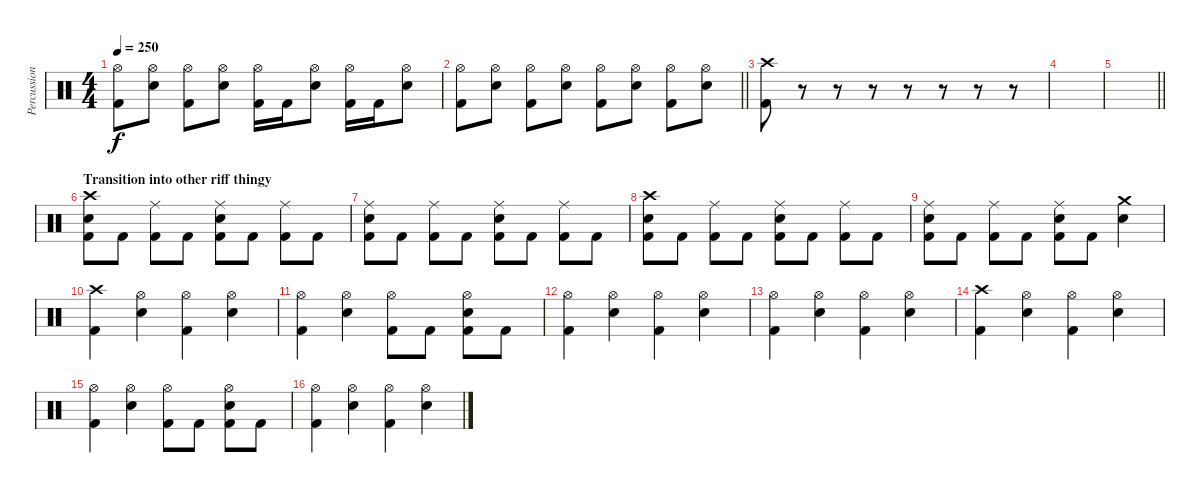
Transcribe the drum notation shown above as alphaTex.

\track ("Percussion" "Percussion") {instrument percussion}
\staff {score}
\articulation defaults
\ts (4 4)
\tempo 250
\clef neutral
\ks c
("Hi-Hat (open)" "Kick (hit) 2").8{dy f} ("Hi-Hat (open)" "Electric Snare (hit)").8 ("Hi-Hat (open)" "Kick (hit) 2").8 ("Hi-Hat (open)" "Electric Snare (hit)").8 ("Hi-Hat (open)" "Kick (hit) 2").16 "Kick (hit) 2".16 ("Hi-Hat (open)" "Electric Snare (hit)").8 ("Hi-Hat (open)" "Kick (hit) 2").16 "Kick (hit) 2".16 ("Hi-Hat (open)" "Electric Snare (hit)").8 |
\barLineRight lightlight
("Hi-Hat (open)" "Kick (hit) 2").8 ("Hi-Hat (open)" "Electric Snare (hit)").8 ("Hi-Hat (open)" "Kick (hit) 2").8 ("Hi-Hat (open)" "Electric Snare (hit)").8 ("Hi-Hat (open)" "Kick (hit) 2").8 ("Hi-Hat (open)" "Electric Snare (hit)").8 ("Hi-Hat (open)" "Kick (hit) 2").8 ("Hi-Hat (open)" "Electric Snare (hit)").8 |
("Crash high (hit)" "Kick (hit) 2").8 r.8 r.8 r.8 r.8 r.8 r.8 r.8 |
|
\barLineRight lightlight
|
\section ("" "Transition into other riff thingy")
("Crash high (hit)" "Kick (hit) 2" "Electric Snare (hit)").8 "Kick (hit) 2".8 ("Ride (middle)" "Kick (hit) 2").8 "Kick (hit) 2".8 ("Ride (middle)" "Kick (hit) 2" "Electric Snare (hit)").8 "Kick (hit) 2".8 ("Ride (middle)" "Kick (hit) 2").8 "Kick (hit) 2".8 |
("Ride (middle)" "Kick (hit) 2" "Electric Snare (hit)").8 "Kick (hit) 2".8 ("Ride (middle)" "Kick (hit) 2").8 "Kick (hit) 2".8 ("Ride (middle)" "Kick (hit) 2" "Electric Snare (hit)").8 "Kick (hit) 2".8 ("Ride (middle)" "Kick (hit) 2").8 "Kick (hit) 2".8 |
("Crash high (hit)" "Kick (hit) 2" "Electric Snare (hit)").8 "Kick (hit) 2".8 ("Ride (middle)" "Kick (hit) 2").8 "Kick (hit) 2".8 ("Ride (middle)" "Kick (hit) 2" "Electric Snare (hit)").8 "Kick (hit) 2".8 ("Ride (middle)" "Kick (hit) 2").8 "Kick (hit) 2".8 |
("Ride (middle)" "Kick (hit) 2" "Electric Snare (hit)").8 "Kick (hit) 2".8 ("Ride (middle)" "Kick (hit) 2").8 "Kick (hit) 2".8 ("Ride (middle)" "Kick (hit) 2" "Electric Snare (hit)").8 "Kick (hit) 2".8 ("Crash medium (hit)" "Electric Snare (hit)").4 |
("Crash high (hit)" "Kick (hit) 2").4 ("Hi-Hat (open)" "Electric Snare (hit)").4 ("Hi-Hat (open)" "Kick (hit) 2").4 ("Hi-Hat (open)" "Electric Snare (hit)").4 |
("Hi-Hat (open)" "Kick (hit) 2").4 ("Hi-Hat (open)" "Electric Snare (hit)").4 ("Hi-Hat (open)" "Kick (hit) 2").8 "Kick (hit) 2".8 ("Hi-Hat (open)" "Kick (hit) 2" "Electric Snare (hit)").8 "Kick (hit) 2".8 |
("Hi-Hat (open)" "Kick (hit) 2").4 ("Hi-Hat (open)" "Electric Snare (hit)").4 ("Hi-Hat (open)" "Kick (hit) 2").4 ("Hi-Hat (open)" "Electric Snare (hit)").4 |
("Hi-Hat (open)" "Kick (hit) 2").4 ("Hi-Hat (open)" "Electric Snare (hit)").4 ("Hi-Hat (open)" "Kick (hit) 2").4 ("Hi-Hat (open)" "Electric Snare (hit)").4 |
("Crash high (hit)" "Kick (hit) 2").4 ("Hi-Hat (open)" "Electric Snare (hit)").4 ("Hi-Hat (open)" "Kick (hit) 2").4 ("Hi-Hat (open)" "Electric Snare (hit)").4 |
("Hi-Hat (open)" "Kick (hit) 2").4 ("Hi-Hat (open)" "Electric Snare (hit)").4 ("Hi-Hat (open)" "Kick (hit) 2").8 "Kick (hit) 2".8 ("Hi-Hat (open)" "Kick (hit) 2" "Electric Snare (hit)").8 "Kick (hit) 2".8 |
("Hi-Hat (open)" "Kick (hit) 2").4 ("Hi-Hat (open)" "Electric Snare (hit)").4 ("Hi-Hat (open)" "Kick (hit) 2").4 ("Hi-Hat (open)" "Electric Snare (hit)").4
